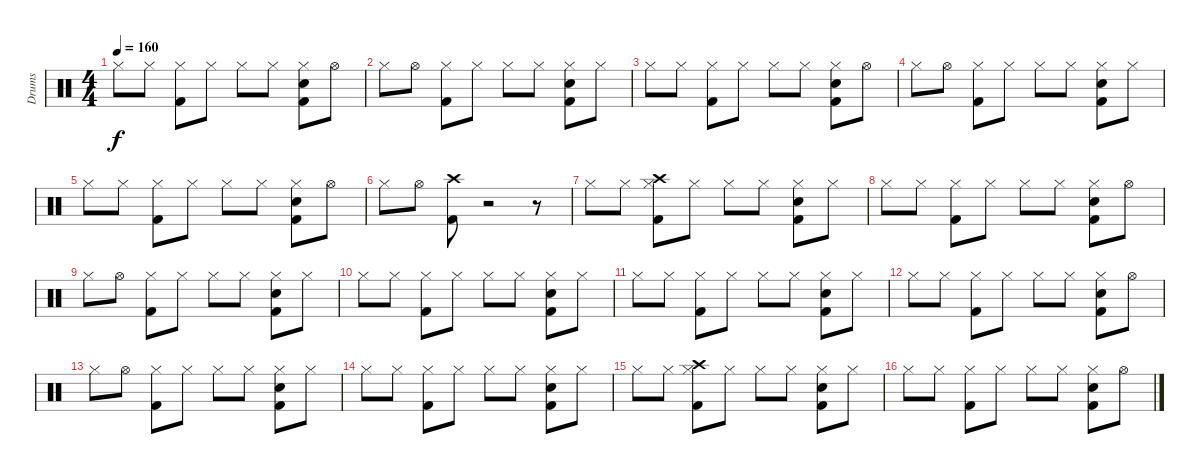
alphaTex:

\track ("Drums" "Drums") {instrument percussion}
\staff {score}
\articulation defaults
\ts (4 4)
\tempo 160
\clef neutral
\ks c "Hi-Hat (closed)".8{dy f} "Hi-Hat (closed)".8
("Kick (hit) 2" "Hi-Hat (closed)").8 "Hi-Hat (closed)".8 "Hi-Hat (closed)".8 "Hi-Hat (closed)".8 ("Snare (hit) 2" "Kick (hit) 2" "Hi-Hat (closed)").8 "Hi-Hat (open)".8 |
"Hi-Hat (closed)".8 "Hi-Hat (open)".8 ("Kick (hit) 2" "Hi-Hat (closed)").8 "Hi-Hat (closed)".8 "Hi-Hat (closed)".8 "Hi-Hat (closed)".8 ("Snare (hit) 2" "Kick (hit) 2" "Hi-Hat (closed)").8 "Hi-Hat (closed)".8 |
"Hi-Hat (closed)".8 "Hi-Hat (closed)".8 ("Kick (hit) 2" "Hi-Hat (closed)").8 "Hi-Hat (closed)".8 "Hi-Hat (closed)".8 "Hi-Hat (closed)".8 ("Snare (hit) 2" "Kick (hit) 2" "Hi-Hat (closed)").8 "Hi-Hat (open)".8 |
"Hi-Hat (closed)".8 "Hi-Hat (open)".8 ("Kick (hit) 2" "Hi-Hat (closed)").8 "Hi-Hat (closed)".8 "Hi-Hat (closed)".8 "Hi-Hat (closed)".8 ("Snare (hit) 2" "Kick (hit) 2" "Hi-Hat (closed)").8 "Hi-Hat (closed)".8 |
"Hi-Hat (closed)".8 "Hi-Hat (closed)".8 ("Kick (hit) 2" "Hi-Hat (closed)").8 "Hi-Hat (closed)".8 "Hi-Hat (closed)".8 "Hi-Hat (closed)".8 ("Snare (hit) 2" "Kick (hit) 2" "Hi-Hat (closed)").8 "Hi-Hat (open)".8 |
"Hi-Hat (closed)".8 "Hi-Hat (open)".8 ("Crash high (hit)" "Kick (hit) 2").8 r.2 r.8 |
"Hi-Hat (closed)".8 "Hi-Hat (closed)".8 ("Crash high (hit)" "Kick (hit) 2" "Hi-Hat (closed)").8 "Hi-Hat (closed)".8 "Hi-Hat (closed)".8 "Hi-Hat (closed)".8 ("Snare (hit) 2" "Kick (hit) 2" "Hi-Hat (closed)").8 "Hi-Hat (closed)".8 |
"Hi-Hat (closed)".8 "Hi-Hat (closed)".8 ("Kick (hit) 2" "Hi-Hat (closed)").8 "Hi-Hat (closed)".8 "Hi-Hat (closed)".8 "Hi-Hat (closed)".8 ("Snare (hit) 2" "Kick (hit) 2" "Hi-Hat (closed)").8 "Hi-Hat (open)".8 |
"Hi-Hat (closed)".8 "Hi-Hat (open)".8 ("Kick (hit) 2" "Hi-Hat (closed)").8 "Hi-Hat (closed)".8 "Hi-Hat (closed)".8 "Hi-Hat (closed)".8 ("Snare (hit) 2" "Kick (hit) 2" "Hi-Hat (closed)").8 "Hi-Hat (closed)".8 |
"Hi-Hat (closed)".8 "Hi-Hat (closed)".8 ("Kick (hit) 2" "Hi-Hat (closed)").8 "Hi-Hat (closed)".8 "Hi-Hat (closed)".8 "Hi-Hat (closed)".8 ("Snare (hit) 2" "Kick (hit) 2" "Hi-Hat (closed)").8 "Hi-Hat (closed)".8 |
"Hi-Hat (closed)".8 "Hi-Hat (closed)".8 ("Kick (hit) 2" "Hi-Hat (closed)").8 "Hi-Hat (closed)".8 "Hi-Hat (closed)".8 "Hi-Hat (closed)".8 ("Snare (hit) 2" "Kick (hit) 2" "Hi-Hat (closed)").8 "Hi-Hat (closed)".8 |
"Hi-Hat (closed)".8 "Hi-Hat (closed)".8 ("Kick (hit) 2" "Hi-Hat (closed)").8 "Hi-Hat (closed)".8 "Hi-Hat (closed)".8 "Hi-Hat (closed)".8 ("Snare (hit) 2" "Kick (hit) 2" "Hi-Hat (closed)").8 "Hi-Hat (open)".8 |
"Hi-Hat (closed)".8 "Hi-Hat (open)".8 ("Kick (hit) 2" "Hi-Hat (closed)").8 "Hi-Hat (closed)".8 "Hi-Hat (closed)".8 "Hi-Hat (closed)".8 ("Snare (hit) 2" "Kick (hit) 2" "Hi-Hat (closed)").8 "Hi-Hat (closed)".8 |
"Hi-Hat (closed)".8 "Hi-Hat (closed)".8 ("Kick (hit) 2" "Hi-Hat (closed)").8 "Hi-Hat (closed)".8 "Hi-Hat (closed)".8 "Hi-Hat (closed)".8 ("Snare (hit) 2" "Kick (hit) 2" "Hi-Hat (closed)").8 "Hi-Hat (closed)".8 |
"Hi-Hat (closed)".8 "Hi-Hat (closed)".8 ("Crash high (hit)" "Kick (hit) 2" "Hi-Hat (closed)").8 "Hi-Hat (closed)".8 "Hi-Hat (closed)".8 "Hi-Hat (closed)".8 ("Snare (hit) 2" "Kick (hit) 2" "Hi-Hat (closed)").8 "Hi-Hat (closed)".8 |
"Hi-Hat (closed)".8 "Hi-Hat (closed)".8 ("Kick (hit) 2" "Hi-Hat (closed)").8 "Hi-Hat (closed)".8 "Hi-Hat (closed)".8 "Hi-Hat (closed)".8 ("Snare (hit) 2" "Kick (hit) 2" "Hi-Hat (closed)").8 "Hi-Hat (open)".8
